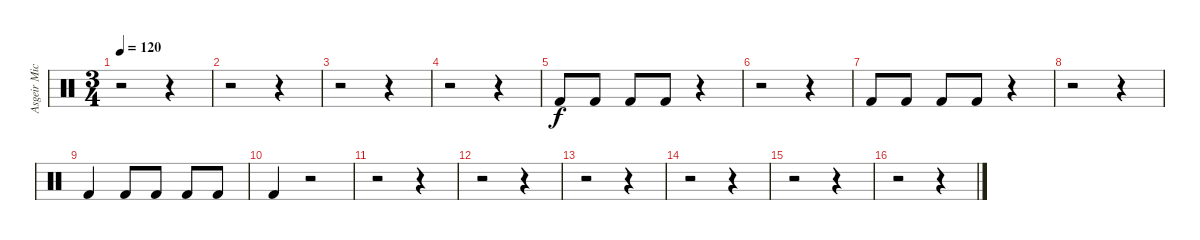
\track ("Asgeir Mickelson" "Asgeir Mic") {instrument percussion}
\staff {score}
\articulation defaults
\ts (3 4)
\tempo 120
\clef neutral
\ks c
r.2{dy f} r.4 |
r.2 r.4 |
r.2 r.4 |
r.2 r.4 |
"Kick (hit) 2".8 "Kick (hit) 2".8 "Kick (hit) 2".8 "Kick (hit) 2".8 r.4 |
r.2 r.4 |
"Kick (hit) 2".8 "Kick (hit) 2".8 "Kick (hit) 2".8 "Kick (hit) 2".8 r.4 |
r.2 r.4 |
"Kick (hit) 2".4 "Kick (hit) 2".8 "Kick (hit) 2".8 "Kick (hit) 2".8 "Kick (hit) 2".8 |
"Kick (hit) 2".4 r.2 |
r.2 r.4 |
r.2 r.4 |
r.2 r.4 |
r.2 r.4 |
r.2 r.4 |
r.2 r.4
